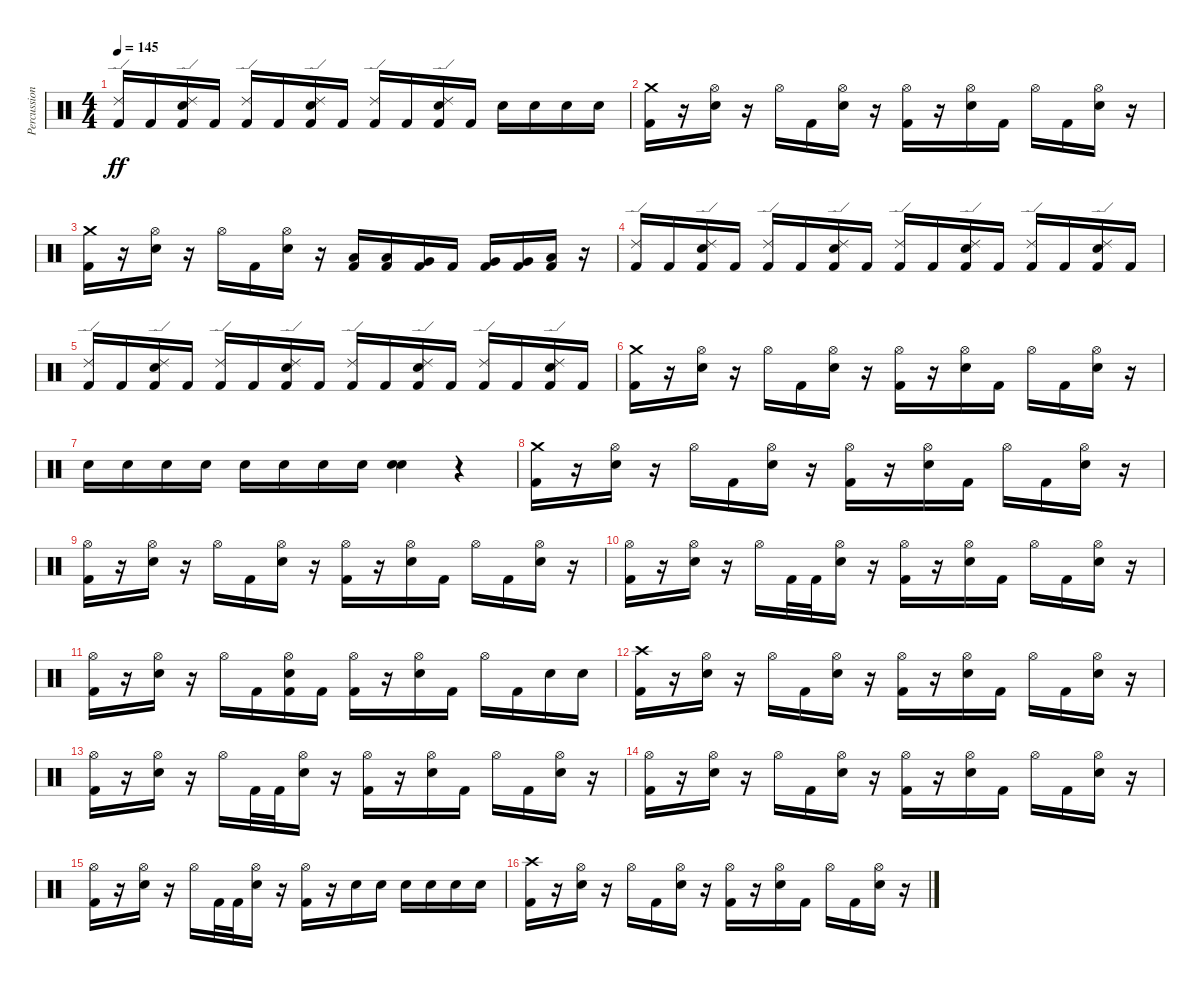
\track ("Percussion" "Percussion") {instrument percussion}
\staff {score}
\articulation defaults
\ts (4 4)
\tempo 145
\clef neutral
\ks c
("Ride (edge) 2" "Kick (hit) 2").16{dy ff} "Kick (hit) 2".16 ("Electric Snare (hit)" "Ride (edge) 2" "Kick (hit) 2").16 "Kick (hit) 2".16 ("Ride (edge) 2" "Kick (hit) 2").16 "Kick (hit) 2".16 ("Electric Snare (hit)" "Ride (edge) 2" "Kick (hit) 2").16 "Kick (hit) 2".16 ("Ride (edge) 2" "Kick (hit) 2").16 "Kick (hit) 2".16 ("Electric Snare (hit)" "Ride (edge) 2" "Kick (hit) 2").16 "Kick (hit) 2".16 "Electric Snare (hit)".16 "Electric Snare (hit)".16 "Electric Snare (hit)".16 "Electric Snare (hit)".16 |
("Crash medium (hit)" "Kick (hit) 2").16 r.16 ("Hi-Hat (open)" "Electric Snare (hit)").16 r.16 "Hi-Hat (open)".16 "Kick (hit) 2".16 ("Hi-Hat (open)" "Electric Snare (hit)").16 r.16 ("Hi-Hat (open)" "Kick (hit) 2").16 r.16 ("Hi-Hat (open)" "Electric Snare (hit)").16 "Kick (hit) 2".16 "Hi-Hat (open)".16 "Kick (hit) 2".16 ("Hi-Hat (open)" "Electric Snare (hit)").16 r.16 |
("Crash medium (hit)" "Kick (hit) 2").16 r.16 ("Hi-Hat (open)" "Electric Snare (hit)").16 r.16 "Hi-Hat (open)".16 "Kick (hit) 2".16 ("Hi-Hat (open)" "Electric Snare (hit)").16 r.16 ("Low Tom (hit)" "Kick (hit) 2").16 ("Low Tom (hit)" "Kick (hit) 2").16 ("Very Low Tom (hit)" "Kick (hit) 2").16 "Kick (hit) 2".16 ("Very Low Tom (hit)" "Kick (hit) 2").16 ("Very Low Tom (hit)" "Kick (hit) 2").16 ("Low Floor Tom (hit)" "Kick (hit) 2").16 r.16 |
("Ride (edge) 2" "Kick (hit) 2").16 "Kick (hit) 2".16 ("Electric Snare (hit)" "Ride (edge) 2" "Kick (hit) 2").16 "Kick (hit) 2".16 ("Ride (edge) 2" "Kick (hit) 2").16 "Kick (hit) 2".16 ("Electric Snare (hit)" "Ride (edge) 2" "Kick (hit) 2").16 "Kick (hit) 2".16 ("Ride (edge) 2" "Kick (hit) 2").16 "Kick (hit) 2".16 ("Electric Snare (hit)" "Ride (edge) 2" "Kick (hit) 2").16 "Kick (hit) 2".16 ("Ride (edge) 2" "Kick (hit) 2").16 "Kick (hit) 2".16 ("Electric Snare (hit)" "Ride (edge) 2" "Kick (hit) 2").16 "Kick (hit) 2".16 |
("Ride (edge) 2" "Kick (hit) 2").16 "Kick (hit) 2".16 ("Electric Snare (hit)" "Ride (edge) 2" "Kick (hit) 2").16 "Kick (hit) 2".16 ("Ride (edge) 2" "Kick (hit) 2").16 "Kick (hit) 2".16 ("Electric Snare (hit)" "Ride (edge) 2" "Kick (hit) 2").16 "Kick (hit) 2".16 ("Ride (edge) 2" "Kick (hit) 2").16 "Kick (hit) 2".16 ("Electric Snare (hit)" "Ride (edge) 2" "Kick (hit) 2").16 "Kick (hit) 2".16 ("Ride (edge) 2" "Kick (hit) 2").16 "Kick (hit) 2".16 ("Electric Snare (hit)" "Ride (edge) 2" "Kick (hit) 2").16 "Kick (hit) 2".16 |
("Crash medium (hit)" "Kick (hit) 2").16 r.16 ("Hi-Hat (open)" "Electric Snare (hit)").16 r.16 "Hi-Hat (open)".16 "Kick (hit) 2".16 ("Hi-Hat (open)" "Electric Snare (hit)").16 r.16 ("Hi-Hat (open)" "Kick (hit) 2").16 r.16 ("Hi-Hat (open)" "Electric Snare (hit)").16 "Kick (hit) 2".16 "Hi-Hat (open)".16 "Kick (hit) 2".16 ("Hi-Hat (open)" "Electric Snare (hit)").16 r.16 |
"Electric Snare (hit)".16 "Electric Snare (hit)".16 "Electric Snare (hit)".16 "Electric Snare (hit)".16 "Electric Snare (hit)".16 "Electric Snare (hit)".16 "Electric Snare (hit)".16 "Electric Snare (hit)".16 ("Electric Snare (hit)" "Electric Snare (hit)").4 r.4 |
("Crash medium (hit)" "Kick (hit) 2").16 r.16 ("Hi-Hat (open)" "Electric Snare (hit)").16 r.16 "Hi-Hat (open)".16 "Kick (hit) 2".16 ("Hi-Hat (open)" "Electric Snare (hit)").16 r.16 ("Hi-Hat (open)" "Kick (hit) 2").16 r.16 ("Hi-Hat (open)" "Electric Snare (hit)").16 "Kick (hit) 2".16 "Hi-Hat (open)".16 "Kick (hit) 2".16 ("Hi-Hat (open)" "Electric Snare (hit)").16 r.16 |
("Hi-Hat (open)" "Kick (hit) 2").16 r.16 ("Hi-Hat (open)" "Electric Snare (hit)").16 r.16 "Hi-Hat (open)".16 "Kick (hit) 2".16 ("Hi-Hat (open)" "Electric Snare (hit)").16 r.16 ("Hi-Hat (open)" "Kick (hit) 2").16 r.16 ("Hi-Hat (open)" "Electric Snare (hit)").16 "Kick (hit) 2".16 "Hi-Hat (open)".16 "Kick (hit) 2".16 ("Hi-Hat (open)" "Electric Snare (hit)").16 r.16 |
("Hi-Hat (open)" "Kick (hit) 2").16 r.16 ("Hi-Hat (open)" "Electric Snare (hit)").16 r.16 "Hi-Hat (open)".16 "Kick (hit) 2".32 "Kick (hit) 2".32 ("Hi-Hat (open)" "Electric Snare (hit)").16 r.16 ("Hi-Hat (open)" "Kick (hit) 2").16 r.16 ("Hi-Hat (open)" "Electric Snare (hit)").16 "Kick (hit) 2".16 "Hi-Hat (open)".16 "Kick (hit) 2".16 ("Hi-Hat (open)" "Electric Snare (hit)").16 r.16 |
("Hi-Hat (open)" "Kick (hit) 2").16 r.16 ("Hi-Hat (open)" "Electric Snare (hit)").16 r.16 "Hi-Hat (open)".16 "Kick (hit) 2".16 ("Electric Snare (hit)" "Hi-Hat (open)" "Kick (hit) 2").16 "Kick (hit) 2".16 ("Hi-Hat (open)" "Kick (hit) 2").16 r.16 ("Hi-Hat (open)" "Electric Snare (hit)").16 "Kick (hit) 2".16 "Hi-Hat (open)".16 "Kick (hit) 2".16 "Electric Snare (hit)".16 "Electric Snare (hit)".16 |
("Crash high (hit)" "Kick (hit) 2").16 r.16 ("Hi-Hat (open)" "Electric Snare (hit)").16 r.16 "Hi-Hat (open)".16 "Kick (hit) 2".16 ("Hi-Hat (open)" "Electric Snare (hit)").16 r.16 ("Hi-Hat (open)" "Kick (hit) 2").16 r.16 ("Hi-Hat (open)" "Electric Snare (hit)").16 "Kick (hit) 2".16 "Hi-Hat (open)".16 "Kick (hit) 2".16 ("Hi-Hat (open)" "Electric Snare (hit)").16 r.16 |
("Hi-Hat (open)" "Kick (hit) 2").16 r.16 ("Hi-Hat (open)" "Electric Snare (hit)").16 r.16 "Hi-Hat (open)".16 "Kick (hit) 2".32 "Kick (hit) 2".32 ("Hi-Hat (open)" "Electric Snare (hit)").16 r.16 ("Hi-Hat (open)" "Kick (hit) 2").16 r.16 ("Hi-Hat (open)" "Electric Snare (hit)").16 "Kick (hit) 2".16 "Hi-Hat (open)".16 "Kick (hit) 2".16 ("Hi-Hat (open)" "Electric Snare (hit)").16 r.16 |
("Hi-Hat (open)" "Kick (hit) 2").16 r.16 ("Hi-Hat (open)" "Electric Snare (hit)").16 r.16 "Hi-Hat (open)".16 "Kick (hit) 2".16 ("Hi-Hat (open)" "Electric Snare (hit)").16 r.16 ("Hi-Hat (open)" "Kick (hit) 2").16 r.16 ("Hi-Hat (open)" "Electric Snare (hit)").16 "Kick (hit) 2".16 "Hi-Hat (open)".16 "Kick (hit) 2".16 ("Hi-Hat (open)" "Electric Snare (hit)").16 r.16 |
("Hi-Hat (open)" "Kick (hit) 2").16 r.16 ("Hi-Hat (open)" "Electric Snare (hit)").16 r.16 "Hi-Hat (open)".16 "Kick (hit) 2".32 "Kick (hit) 2".32 ("Hi-Hat (open)" "Electric Snare (hit)").16 r.16 ("Hi-Hat (open)" "Kick (hit) 2").16 r.16 "Electric Snare (hit)".16 "Electric Snare (hit)".16 "Electric Snare (hit)".16 "Electric Snare (hit)".16 "Electric Snare (hit)".16 "Electric Snare (hit)".16 |
("Crash high (hit)" "Kick (hit) 2").16 r.16 ("Hi-Hat (open)" "Electric Snare (hit)").16 r.16 "Hi-Hat (open)".16 "Kick (hit) 2".16 ("Hi-Hat (open)" "Electric Snare (hit)").16 r.16 ("Hi-Hat (open)" "Kick (hit) 2").16 r.16 ("Hi-Hat (open)" "Electric Snare (hit)").16 "Kick (hit) 2".16 "Hi-Hat (open)".16 "Kick (hit) 2".16 ("Hi-Hat (open)" "Electric Snare (hit)").16 r.16
